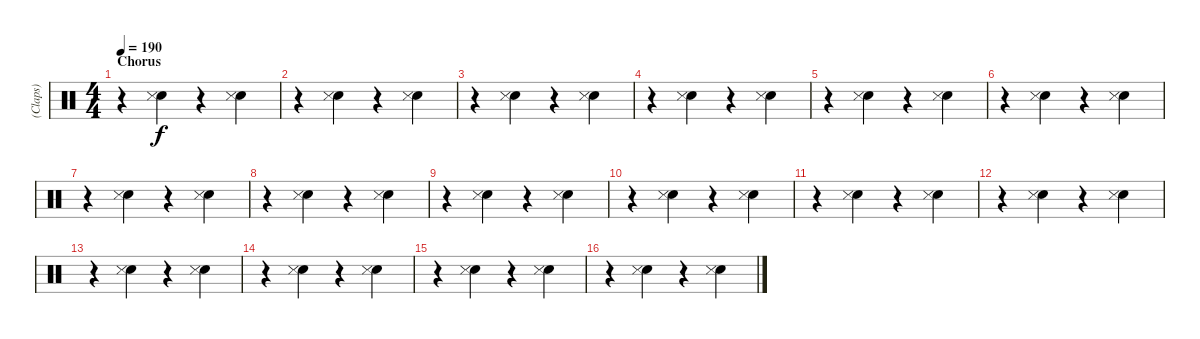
\track ("(Claps)" "(Claps)") {instrument percussion}
\staff {score}
\articulation defaults
\ts (4 4)
\section ("" "Chorus")
\tempo 190
\clef neutral
\ks c
r.4{dy f} ("Hand Clap (hit)" "Snare (side stick) 3").4 r.4 ("Hand Clap (hit)" "Snare (side stick) 3").4 |
r.4 ("Hand Clap (hit)" "Snare (side stick) 3").4 r.4 ("Hand Clap (hit)" "Snare (side stick) 3").4 |
r.4 ("Hand Clap (hit)" "Snare (side stick) 3").4 r.4 ("Hand Clap (hit)" "Snare (side stick) 3").4 |
r.4 ("Hand Clap (hit)" "Snare (side stick) 3").4 r.4 ("Hand Clap (hit)" "Snare (side stick) 3").4 |
r.4 ("Hand Clap (hit)" "Snare (side stick) 3").4 r.4 ("Hand Clap (hit)" "Snare (side stick) 3").4 |
r.4 ("Hand Clap (hit)" "Snare (side stick) 3").4 r.4 ("Hand Clap (hit)" "Snare (side stick) 3").4 |
r.4 ("Hand Clap (hit)" "Snare (side stick) 3").4 r.4 ("Hand Clap (hit)" "Snare (side stick) 3").4 |
r.4 ("Hand Clap (hit)" "Snare (side stick) 3").4 r.4 ("Hand Clap (hit)" "Snare (side stick) 3").4 |
r.4 ("Hand Clap (hit)" "Snare (side stick) 3").4 r.4 ("Hand Clap (hit)" "Snare (side stick) 3").4 |
r.4 ("Hand Clap (hit)" "Snare (side stick) 3").4 r.4 ("Hand Clap (hit)" "Snare (side stick) 3").4 |
r.4 ("Hand Clap (hit)" "Snare (side stick) 3").4 r.4 ("Hand Clap (hit)" "Snare (side stick) 3").4 |
r.4 ("Hand Clap (hit)" "Snare (side stick) 3").4 r.4 ("Hand Clap (hit)" "Snare (side stick) 3").4 |
r.4 ("Hand Clap (hit)" "Snare (side stick) 3").4 r.4 ("Hand Clap (hit)" "Snare (side stick) 3").4 |
r.4 ("Hand Clap (hit)" "Snare (side stick) 3").4 r.4 ("Hand Clap (hit)" "Snare (side stick) 3").4 |
r.4 ("Hand Clap (hit)" "Snare (side stick) 3").4 r.4 ("Hand Clap (hit)" "Snare (side stick) 3").4 |
r.4 ("Hand Clap (hit)" "Snare (side stick) 3").4 r.4 ("Hand Clap (hit)" "Snare (side stick) 3").4
